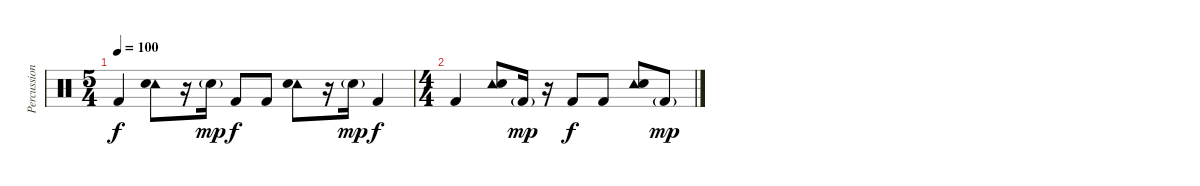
\track ("Percussion" "Percussion") {instrument percussion}
\staff {score}
\articulation defaults
\ts (5 4)
\tempo 100
\clef neutral
\ks c "Kick (hit) 2".4{dy f}
("Tambourine (hit)" "Snare (hit) 2").8 r.16 "Snare (hit) 2"{g}.16{dy mp} "Kick (hit) 2".8{dy f} "Kick (hit) 2".8 ("Tambourine (hit)" "Snare (hit) 2").8 r.16 "Snare (hit) 2"{g}.16{dy mp} "Kick (hit) 2".4{dy f} |
\ts (4 4)
"Kick (hit) 2".4 ("Tambourine (hit)" "Snare (hit) 2").8 "Kick (hit) 2"{g}.16{dy mp} r.16 "Kick (hit) 2".8{dy f} "Kick (hit) 2".8 ("Tambourine (hit)" "Snare (hit) 2").8 "Kick (hit) 2"{g}.8{dy mp}
